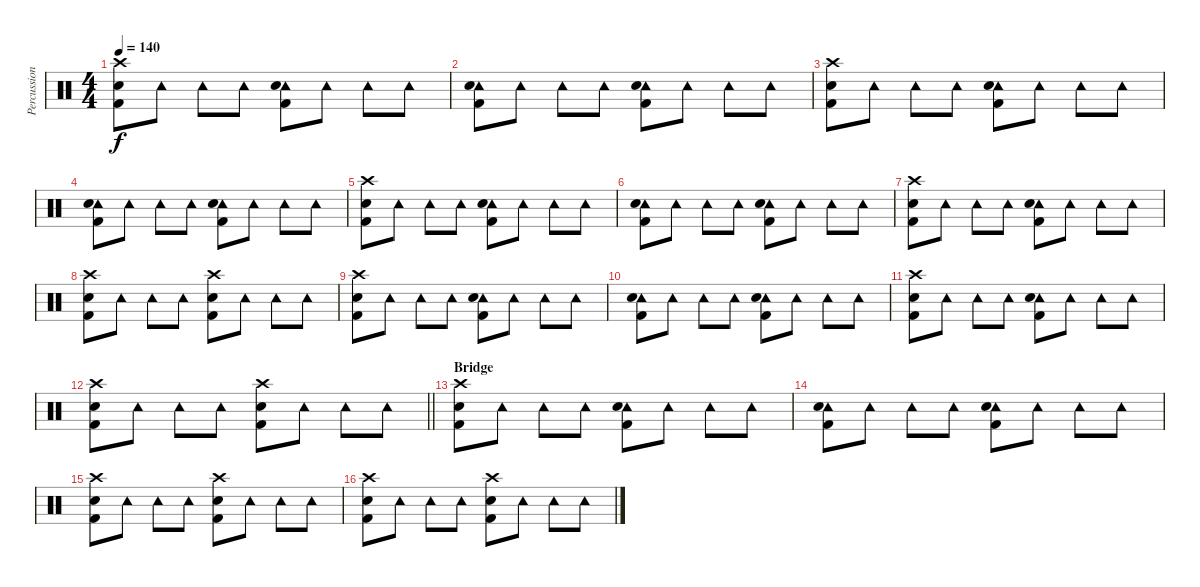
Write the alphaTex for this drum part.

\track ("Percussion" "Percussion") {instrument percussion}
\staff {score}
\articulation defaults
\ts (4 4)
\tempo 140
\clef neutral
\ks c
("Crash high (hit)" "Snare (hit) 2" "Kick (hit) 2").8{dy f} "Tambourine (hit)".8 "Tambourine (hit)".8 "Tambourine (hit)".8 ("Tambourine (hit)" "Snare (hit) 2" "Kick (hit) 2").8 "Tambourine (hit)".8 "Tambourine (hit)".8 "Tambourine (hit)".8 |
("Tambourine (hit)" "Snare (hit) 2" "Kick (hit) 2").8 "Tambourine (hit)".8 "Tambourine (hit)".8 "Tambourine (hit)".8 ("Tambourine (hit)" "Snare (hit) 2" "Kick (hit) 2").8 "Tambourine (hit)".8 "Tambourine (hit)".8 "Tambourine (hit)".8 |
("Crash high (hit)" "Snare (hit) 2" "Kick (hit) 2").8 "Tambourine (hit)".8 "Tambourine (hit)".8 "Tambourine (hit)".8 ("Tambourine (hit)" "Snare (hit) 2" "Kick (hit) 2").8 "Tambourine (hit)".8 "Tambourine (hit)".8 "Tambourine (hit)".8 |
("Tambourine (hit)" "Snare (hit) 2" "Kick (hit) 2").8 "Tambourine (hit)".8 "Tambourine (hit)".8 "Tambourine (hit)".8 ("Tambourine (hit)" "Snare (hit) 2" "Kick (hit) 2").8 "Tambourine (hit)".8 "Tambourine (hit)".8 "Tambourine (hit)".8 |
("Crash high (hit)" "Snare (hit) 2" "Kick (hit) 2").8 "Tambourine (hit)".8 "Tambourine (hit)".8 "Tambourine (hit)".8 ("Tambourine (hit)" "Snare (hit) 2" "Kick (hit) 2").8 "Tambourine (hit)".8 "Tambourine (hit)".8 "Tambourine (hit)".8 |
("Tambourine (hit)" "Snare (hit) 2" "Kick (hit) 2").8 "Tambourine (hit)".8 "Tambourine (hit)".8 "Tambourine (hit)".8 ("Tambourine (hit)" "Snare (hit) 2" "Kick (hit) 2").8 "Tambourine (hit)".8 "Tambourine (hit)".8 "Tambourine (hit)".8 |
("Crash high (hit)" "Snare (hit) 2" "Kick (hit) 2").8 "Tambourine (hit)".8 "Tambourine (hit)".8 "Tambourine (hit)".8 ("Tambourine (hit)" "Snare (hit) 2" "Kick (hit) 2").8 "Tambourine (hit)".8 "Tambourine (hit)".8 "Tambourine (hit)".8 |
("Crash high (hit)" "Snare (hit) 2" "Kick (hit) 2").8 "Tambourine (hit)".8 "Tambourine (hit)".8 "Tambourine (hit)".8 ("Crash high (hit)" "Snare (hit) 2" "Kick (hit) 2").8 "Tambourine (hit)".8 "Tambourine (hit)".8 "Tambourine (hit)".8 |
("Crash high (hit)" "Snare (hit) 2" "Kick (hit) 2").8 "Tambourine (hit)".8 "Tambourine (hit)".8 "Tambourine (hit)".8 ("Tambourine (hit)" "Snare (hit) 2" "Kick (hit) 2").8 "Tambourine (hit)".8 "Tambourine (hit)".8 "Tambourine (hit)".8 |
("Tambourine (hit)" "Snare (hit) 2" "Kick (hit) 2").8 "Tambourine (hit)".8 "Tambourine (hit)".8 "Tambourine (hit)".8 ("Tambourine (hit)" "Snare (hit) 2" "Kick (hit) 2").8 "Tambourine (hit)".8 "Tambourine (hit)".8 "Tambourine (hit)".8 |
("Crash high (hit)" "Snare (hit) 2" "Kick (hit) 2").8 "Tambourine (hit)".8 "Tambourine (hit)".8 "Tambourine (hit)".8 ("Tambourine (hit)" "Snare (hit) 2" "Kick (hit) 2").8 "Tambourine (hit)".8 "Tambourine (hit)".8 "Tambourine (hit)".8 |
\barLineRight lightlight
("Crash high (hit)" "Snare (hit) 2" "Kick (hit) 2").8 "Tambourine (hit)".8 "Tambourine (hit)".8 "Tambourine (hit)".8 ("Crash high (hit)" "Snare (hit) 2" "Kick (hit) 2").8 "Tambourine (hit)".8 "Tambourine (hit)".8 "Tambourine (hit)".8 |
\section ("" "Bridge")
("Crash high (hit)" "Snare (hit) 2" "Kick (hit) 2").8 "Tambourine (hit)".8 "Tambourine (hit)".8 "Tambourine (hit)".8 ("Tambourine (hit)" "Snare (hit) 2" "Kick (hit) 2").8 "Tambourine (hit)".8 "Tambourine (hit)".8 "Tambourine (hit)".8 |
("Tambourine (hit)" "Snare (hit) 2" "Kick (hit) 2").8 "Tambourine (hit)".8 "Tambourine (hit)".8 "Tambourine (hit)".8 ("Tambourine (hit)" "Snare (hit) 2" "Kick (hit) 2").8 "Tambourine (hit)".8 "Tambourine (hit)".8 "Tambourine (hit)".8 |
("Crash high (hit)" "Snare (hit) 2" "Kick (hit) 2").8 "Tambourine (hit)".8 "Tambourine (hit)".8 "Tambourine (hit)".8 ("Crash high (hit)" "Snare (hit) 2" "Kick (hit) 2").8 "Tambourine (hit)".8 "Tambourine (hit)".8 "Tambourine (hit)".8 |
("Crash high (hit)" "Snare (hit) 2" "Kick (hit) 2").8 "Tambourine (hit)".8 "Tambourine (hit)".8 "Tambourine (hit)".8 ("Crash high (hit)" "Snare (hit) 2" "Kick (hit) 2").8 "Tambourine (hit)".8 "Tambourine (hit)".8 "Tambourine (hit)".8
